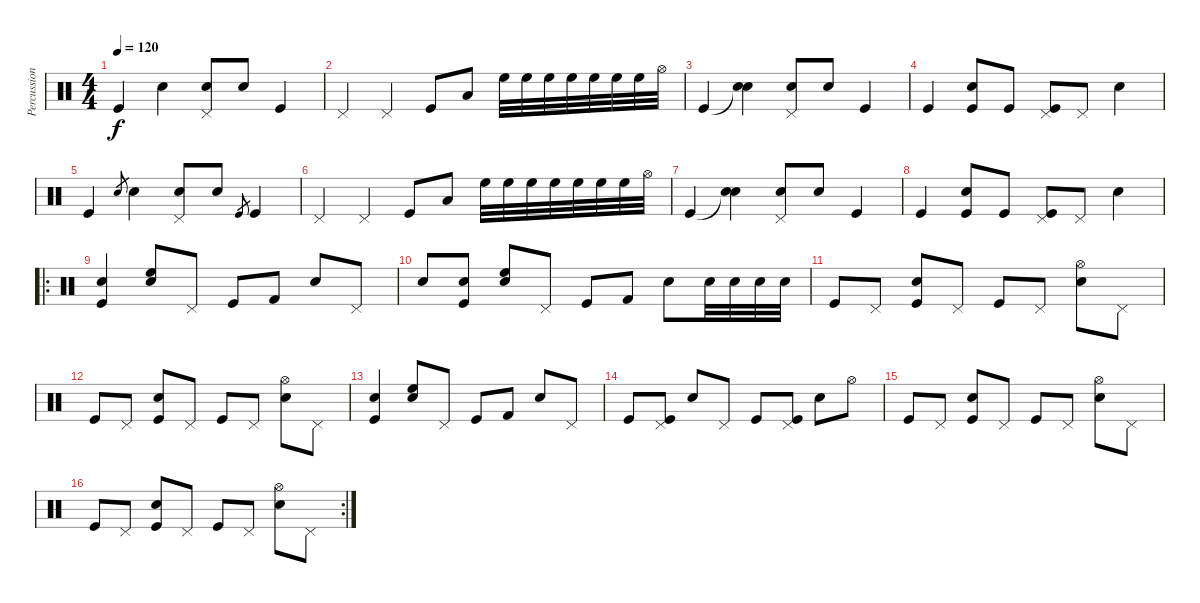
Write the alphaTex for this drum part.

\track ("Percussion" "Percussion") {instrument percussion}
\staff {score}
\articulation defaults
\ts (4 4)
\tempo 120
\clef neutral
\ks c "Kick (hit)".4{dy f} "Snare (hit) 2".4
("Pedal Hi-Hat (hit)" "Snare (hit) 2").8 "Snare (hit) 2".8 "Kick (hit)".4 |
"Pedal Hi-Hat (hit)".4 "Pedal Hi-Hat (hit)".4 "Kick (hit)".8 "Low Tom (hit)".8 "High Floor Tom (hit)".32 "High Floor Tom (hit)".32 "High Floor Tom (hit)".32 "High Floor Tom (hit)".32 "High Floor Tom (hit)".32 "High Floor Tom (hit)".32 "High Floor Tom (hit)".32 "Hi-Hat (open)".32 |
"Kick (hit)".4 ("Snare (hit)"{t} "Snare (hit) 2").4 ("Pedal Hi-Hat (hit)" "Snare (hit) 2").8 "Snare (hit) 2".8 "Kick (hit)".4 |
"Kick (hit)".4 ("Snare (hit) 2" "Kick (hit)").8 "Kick (hit)".8 ("Pedal Hi-Hat (hit)" "Kick (hit)").8 "Pedal Hi-Hat (hit)".8 "Electric Snare (hit)".4 |
"Kick (hit)".4 "Snare (hit) 2".8{gr} "Snare (hit) 2".4 ("Pedal Hi-Hat (hit)" "Snare (hit) 2").8 "Snare (hit) 2".8 "Kick (hit)".8{gr} "Kick (hit)".4 |
"Pedal Hi-Hat (hit)".4 "Pedal Hi-Hat (hit)".4 "Kick (hit)".8 "Low Tom (hit)".8 "High Floor Tom (hit)".32 "High Floor Tom (hit)".32 "High Floor Tom (hit)".32 "High Floor Tom (hit)".32 "High Floor Tom (hit)".32 "High Floor Tom (hit)".32 "High Floor Tom (hit)".32 "Hi-Hat (open)".32 |
"Kick (hit)".4 ("Snare (hit)"{t} "Snare (hit) 2").4 ("Pedal Hi-Hat (hit)" "Snare (hit) 2").8 "Snare (hit) 2".8 "Kick (hit)".4 |
"Kick (hit)".4 ("Snare (hit) 2" "Kick (hit)").8 "Kick (hit)".8 ("Pedal Hi-Hat (hit)" "Kick (hit)").8 "Pedal Hi-Hat (hit)".8 "Electric Snare (hit)".4 |
\ro
("Kick (hit)" "Snare (hit) 2").4 ("High Floor Tom (hit)" "Electric Snare (hit)").8 "Pedal Hi-Hat (hit)".8 "Kick (hit)".8 "Kick (hit) 2".8 "Electric Snare (hit)".8 "Pedal Hi-Hat (hit)".8 |
"Electric Snare (hit)".8 ("Kick (hit)" "Snare (hit) 2").8 ("High Floor Tom (hit)" "Electric Snare (hit)").8 "Pedal Hi-Hat (hit)".8 "Kick (hit)".8 "Kick (hit) 2".8 "Electric Snare (hit)".8 "Snare (hit) 2".32 "Snare (hit) 2".32 "Snare (hit) 2".32 "Snare (hit) 2".32 |
"Kick (hit)".8 "Pedal Hi-Hat (hit)".8 ("Snare (hit) 2" "Kick (hit)").8 "Pedal Hi-Hat (hit)".8 "Kick (hit)".8 "Pedal Hi-Hat (hit)".8 ("Electric Snare (hit)" "Hi-Hat (open)").8 "Pedal Hi-Hat (hit)".8 |
"Kick (hit)".8 "Pedal Hi-Hat (hit)".8 ("Snare (hit) 2" "Kick (hit)").8 "Pedal Hi-Hat (hit)".8 "Kick (hit)".8 "Pedal Hi-Hat (hit)".8 ("Electric Snare (hit)" "Hi-Hat (open)").8 "Pedal Hi-Hat (hit)".8 |
("Kick (hit)" "Snare (hit) 2").4 ("High Floor Tom (hit)" "Electric Snare (hit)").8 "Pedal Hi-Hat (hit)".8 "Kick (hit)".8 "Kick (hit) 2".8 "Electric Snare (hit)".8 "Pedal Hi-Hat (hit)".8 |
"Kick (hit)".8 ("Pedal Hi-Hat (hit)" "Kick (hit)").8 "Snare (hit) 2".8 "Pedal Hi-Hat (hit)".8 "Kick (hit)".8 ("Pedal Hi-Hat (hit)" "Kick (hit)").8 "Snare (hit) 2".8 "Hi-Hat (open)".8 |
"Kick (hit)".8 "Pedal Hi-Hat (hit)".8 ("Snare (hit) 2" "Kick (hit)").8 "Pedal Hi-Hat (hit)".8 "Kick (hit)".8 "Pedal Hi-Hat (hit)".8 ("Electric Snare (hit)" "Hi-Hat (open)").8 "Pedal Hi-Hat (hit)".8 |
\rc 2 "Kick (hit)".8 "Pedal Hi-Hat (hit)".8
("Snare (hit) 2" "Kick (hit)").8 "Pedal Hi-Hat (hit)".8 "Kick (hit)".8 "Pedal Hi-Hat (hit)".8 ("Electric Snare (hit)" "Hi-Hat (open)").8 "Pedal Hi-Hat (hit)".8
